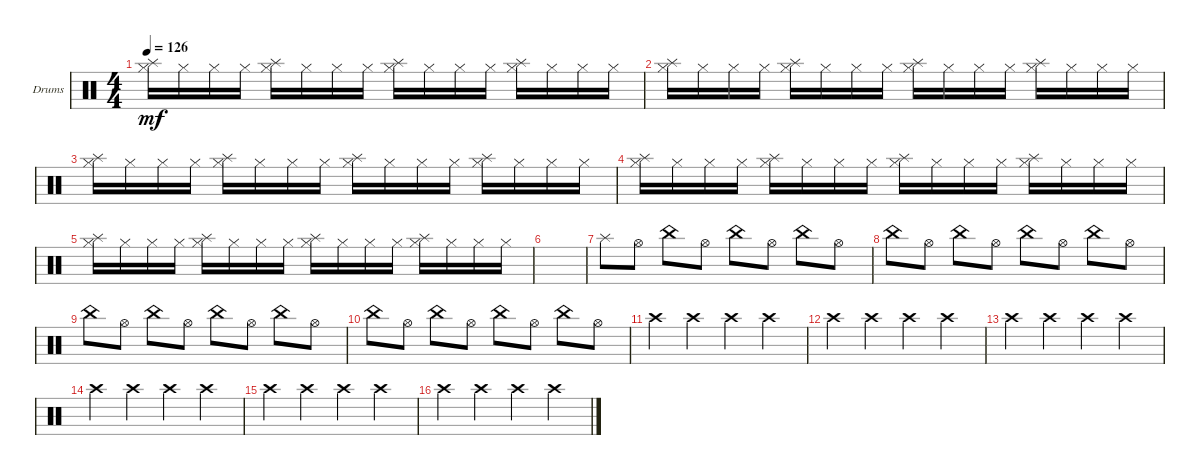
\defaultSystemsLayout 4
\bracketExtendMode groupsimilarinstruments
\firstSystemTrackNameOrientation horizontal
\otherSystemsTrackNameOrientation horizontal
\track ("Drumkit" "Drums") {instrument percussion}
\staff {score}
\articulation defaults
\ts (4 4)
\tempo 126
\clef neutral
\ks c
("Hi-Hat (closed)" "Splash (hit)").16{dy mf} "Hi-Hat (closed)".16 "Hi-Hat (closed)".16 "Hi-Hat (closed)".16 ("Hi-Hat (closed)" "Splash (hit)").16 "Hi-Hat (closed)".16 "Hi-Hat (closed)".16 "Hi-Hat (closed)".16 ("Hi-Hat (closed)" "Splash (hit)").16 "Hi-Hat (closed)".16 "Hi-Hat (closed)".16 "Hi-Hat (closed)".16 ("Hi-Hat (closed)" "Splash (hit)").16 "Hi-Hat (closed)".16 "Hi-Hat (closed)".16 "Hi-Hat (closed)".16 |
("Hi-Hat (closed)" "Splash (hit)").16 "Hi-Hat (closed)".16 "Hi-Hat (closed)".16 "Hi-Hat (closed)".16 ("Hi-Hat (closed)" "Splash (hit)").16 "Hi-Hat (closed)".16 "Hi-Hat (closed)".16 "Hi-Hat (closed)".16 ("Hi-Hat (closed)" "Splash (hit)").16 "Hi-Hat (closed)".16 "Hi-Hat (closed)".16 "Hi-Hat (closed)".16 ("Hi-Hat (closed)" "Splash (hit)").16 "Hi-Hat (closed)".16 "Hi-Hat (closed)".16 "Hi-Hat (closed)".16 |
("Hi-Hat (closed)" "Splash (hit)").16 "Hi-Hat (closed)".16 "Hi-Hat (closed)".16 "Hi-Hat (closed)".16 ("Hi-Hat (closed)" "Splash (hit)").16 "Hi-Hat (closed)".16 "Hi-Hat (closed)".16 "Hi-Hat (closed)".16 ("Hi-Hat (closed)" "Splash (hit)").16 "Hi-Hat (closed)".16 "Hi-Hat (closed)".16 "Hi-Hat (closed)".16 ("Hi-Hat (closed)" "Splash (hit)").16 "Hi-Hat (closed)".16 "Hi-Hat (closed)".16 "Hi-Hat (closed)".16 |
("Hi-Hat (closed)" "Splash (hit)").16 "Hi-Hat (closed)".16 "Hi-Hat (closed)".16 "Hi-Hat (closed)".16 ("Hi-Hat (closed)" "Splash (hit)").16 "Hi-Hat (closed)".16 "Hi-Hat (closed)".16 "Hi-Hat (closed)".16 ("Hi-Hat (closed)" "Splash (hit)").16 "Hi-Hat (closed)".16 "Hi-Hat (closed)".16 "Hi-Hat (closed)".16 ("Hi-Hat (closed)" "Splash (hit)").16 "Hi-Hat (closed)".16 "Hi-Hat (closed)".16 "Hi-Hat (closed)".16 |
("Hi-Hat (closed)" "Splash (hit)").16 "Hi-Hat (closed)".16 "Hi-Hat (closed)".16 "Hi-Hat (closed)".16 ("Hi-Hat (closed)" "Splash (hit)").16 "Hi-Hat (closed)".16 "Hi-Hat (closed)".16 "Hi-Hat (closed)".16 ("Hi-Hat (closed)" "Splash (hit)").16 "Hi-Hat (closed)".16 "Hi-Hat (closed)".16 "Hi-Hat (closed)".16 ("Hi-Hat (closed)" "Splash (hit)").16 "Hi-Hat (closed)".16 "Hi-Hat (closed)".16 "Hi-Hat (closed)".16 |
|
"Splash (hit)".8 "Hi-Hat (open)".8 "China (hit)".8 "Hi-Hat (open)".8 "China (hit)".8 "Hi-Hat (open)".8 "China (hit)".8 "Hi-Hat (open)".8 |
"China (hit)".8 "Hi-Hat (open)".8 "China (hit)".8 "Hi-Hat (open)".8 "China (hit)".8 "Hi-Hat (open)".8 "China (hit)".8 "Hi-Hat (open)".8 |
"China (hit)".8 "Hi-Hat (open)".8 "China (hit)".8 "Hi-Hat (open)".8 "China (hit)".8 "Hi-Hat (open)".8 "China (hit)".8 "Hi-Hat (open)".8 |
"China (hit)".8 "Hi-Hat (open)".8 "China (hit)".8 "Hi-Hat (open)".8 "China (hit)".8 "Hi-Hat (open)".8 "China (hit)".8 "Hi-Hat (open)".8 |
"Crash high (hit)".4 "Crash high (hit)".4 "Crash high (hit)".4 "Crash high (hit)".4 |
"Crash high (hit)".4 "Crash high (hit)".4 "Crash high (hit)".4 "Crash high (hit)".4 |
"Crash high (hit)".4 "Crash high (hit)".4 "Crash high (hit)".4 "Crash high (hit)".4 |
"Crash high (hit)".4 "Crash high (hit)".4 "Crash high (hit)".4 "Crash high (hit)".4 |
"Crash high (hit)".4 "Crash high (hit)".4 "Crash high (hit)".4 "Crash high (hit)".4 |
"Crash high (hit)".4 "Crash high (hit)".4 "Crash high (hit)".4 "Crash high (hit)".4
